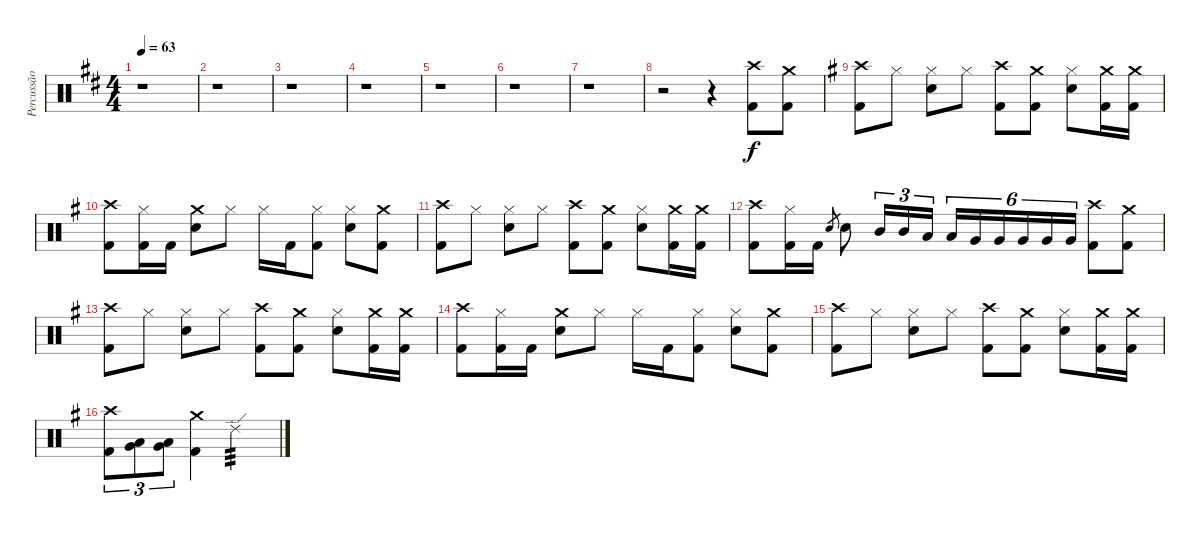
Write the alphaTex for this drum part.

\track ("Percussão" "Percussão") {instrument percussion}
\staff {score}
\articulation defaults
\ts (4 4)
\tempo 63
\clef neutral
\ks d
r.1{dy f} |
r.1 |
r.1 |
r.1 |
r.1 |
r.1 |
r.1 |
r.2 r.4 ("Crash high (hit)" "Kick (hit) 2").8 ("Crash medium (hit)" "Kick (hit) 2").8 |
\ks g
("Crash high (hit)" "Kick (hit) 2").8 "Hi-Hat (closed)".8 ("Hi-Hat (closed)" "Electric Snare (hit)").8 "Hi-Hat (closed)".8 ("Crash high (hit)" "Kick (hit) 2").8 ("Crash medium (hit)" "Kick (hit) 2").8 ("Hi-Hat (closed)" "Electric Snare (hit)").8 ("Crash medium (hit)" "Kick (hit) 2").16 ("Crash medium (hit)" "Kick (hit) 2").16 |
("Crash high (hit)" "Kick (hit) 2").8 ("Hi-Hat (closed)" "Kick (hit) 2").16 "Kick (hit) 2".16 ("Crash medium (hit)" "Electric Snare (hit)").8 "Hi-Hat (closed)".8 "Hi-Hat (closed)".16 "Kick (hit) 2".16 ("Hi-Hat (closed)" "Kick (hit) 2").8 ("Hi-Hat (closed)" "Electric Snare (hit)").8 ("Crash medium (hit)" "Kick (hit) 2").8 |
("Crash high (hit)" "Kick (hit) 2").8 "Hi-Hat (closed)".8 ("Hi-Hat (closed)" "Electric Snare (hit)").8 "Hi-Hat (closed)".8 ("Crash high (hit)" "Kick (hit) 2").8 ("Crash medium (hit)" "Kick (hit) 2").8 ("Hi-Hat (closed)" "Electric Snare (hit)").8 ("Crash medium (hit)" "Kick (hit) 2").16 ("Crash medium (hit)" "Kick (hit) 2").16 |
("Crash high (hit)" "Kick (hit) 2").8 ("Hi-Hat (closed)" "Kick (hit) 2").16 "Kick (hit) 2".16 "Electric Snare (hit)".8{gr} "Electric Snare (hit)".8 "Mid Tom (hit)".16{tu (3 2)} "Mid Tom (hit)".16{tu (3 2)} "Low Tom (hit)".16{tu (3 2)} "Low Tom (hit)".16{tu (6 4)} "Very Low Tom (hit)".16{tu (6 4)} "Very Low Tom (hit)".16{tu (6 4)} "Very Low Tom (hit)".16{tu (6 4)} "Very Low Tom (hit)".16{tu (6 4)} "Very Low Tom (hit)".16{tu (6 4)} ("Crash high (hit)" "Kick (hit) 2").8 ("Crash medium (hit)" "Kick (hit) 2").8 |
("Crash high (hit)" "Kick (hit) 2").8 "Hi-Hat (closed)".8 ("Hi-Hat (closed)" "Electric Snare (hit)").8 "Hi-Hat (closed)".8 ("Crash high (hit)" "Kick (hit) 2").8 ("Crash medium (hit)" "Kick (hit) 2").8 ("Hi-Hat (closed)" "Electric Snare (hit)").8 ("Crash medium (hit)" "Kick (hit) 2").16 ("Crash medium (hit)" "Kick (hit) 2").16 |
("Crash high (hit)" "Kick (hit) 2").8 ("Hi-Hat (closed)" "Kick (hit) 2").16 "Kick (hit) 2".16 ("Crash medium (hit)" "Electric Snare (hit)").8 "Hi-Hat (closed)".8 "Hi-Hat (closed)".16 "Kick (hit) 2".16 ("Hi-Hat (closed)" "Kick (hit) 2").8 ("Hi-Hat (closed)" "Electric Snare (hit)").8 ("Crash medium (hit)" "Kick (hit) 2").8 |
("Crash high (hit)" "Kick (hit) 2").8 "Hi-Hat (closed)".8 ("Hi-Hat (closed)" "Electric Snare (hit)").8 "Hi-Hat (closed)".8 ("Crash high (hit)" "Kick (hit) 2").8 ("Crash medium (hit)" "Kick (hit) 2").8 ("Hi-Hat (closed)" "Electric Snare (hit)").8 ("Crash medium (hit)" "Kick (hit) 2").16 ("Crash medium (hit)" "Kick (hit) 2").16 |
("Crash high (hit)" "Kick (hit) 2").8{tu (3 2)} ("Low Tom (hit)" "Very Low Tom (hit)").8{tu (3 2)} ("Low Tom (hit)" "Very Low Tom (hit)").8{tu (3 2)} ("Crash medium (hit)" "Kick (hit) 2").4 "Ride (edge) 2".2{tp 3}
